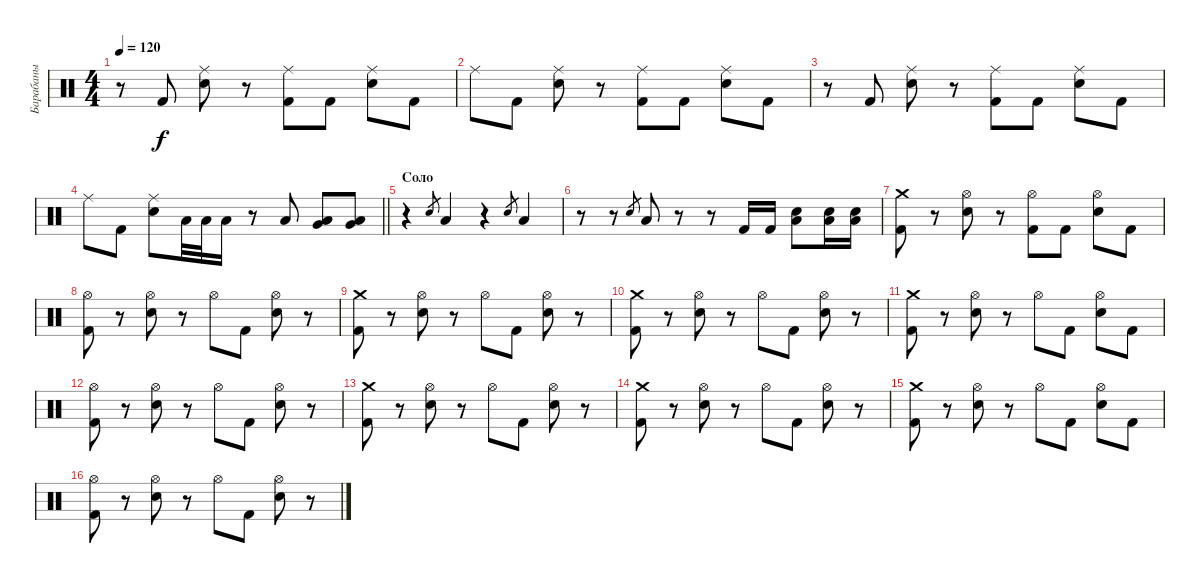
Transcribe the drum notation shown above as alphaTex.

\track ("Барабаны" "Барабаны") {instrument percussion}
\staff {score}
\articulation defaults
\ts (4 4)
\tempo 120
\clef neutral
\ks c
r.8{dy f} "Kick (hit) 2".8 ("Ride (middle)" "Snare (hit) 2").8 r.8 ("Ride (middle)" "Kick (hit) 2").8 "Kick (hit) 2".8 ("Ride (middle)" "Snare (hit) 2").8 "Kick (hit) 2".8 |
"Ride (middle)".8 "Kick (hit) 2".8 ("Ride (middle)" "Snare (hit) 2").8 r.8 ("Ride (middle)" "Kick (hit) 2").8 "Kick (hit) 2".8 ("Ride (middle)" "Snare (hit) 2").8 "Kick (hit) 2".8 |
r.8 "Kick (hit) 2".8 ("Ride (middle)" "Snare (hit) 2").8 r.8 ("Ride (middle)" "Kick (hit) 2").8 "Kick (hit) 2".8 ("Ride (middle)" "Snare (hit) 2").8 "Kick (hit) 2".8 |
\barLineRight lightlight "Ride (middle)".8 "Kick (hit) 2".8
("Ride (middle)" "Snare (hit) 2").8 "Low Tom (hit)".32 "Low Tom (hit)".32 "Low Tom (hit)".16 r.8 "Low Tom (hit)".8 ("Low Tom (hit)" "Very Low Tom (hit)").8 ("Low Tom (hit)" "Very Low Tom (hit)").8 |
\section ("" "Соло")
r.4 "Snare (hit) 2".8{gr} "Low Tom (hit)".4 r.4 "Snare (hit) 2".8{gr} "Low Tom (hit)".4 |
r.8 r.8 "Snare (hit) 2".8{gr} "Low Tom (hit)".8 r.8 r.8 "Kick (hit) 2".16 "Kick (hit) 2".16 ("Snare (hit) 2" "Low Tom (hit)").8 ("Snare (hit) 2" "Low Tom (hit)").16 ("Snare (hit) 2" "Low Tom (hit)").16 |
("Kick (hit) 2" "Crash medium (hit)").8 r.8 ("Hi-Hat (open)" "Snare (hit) 2").8 r.8 ("Hi-Hat (open)" "Kick (hit) 2").8 "Kick (hit) 2".8 ("Hi-Hat (open)" "Snare (hit) 2").8 "Kick (hit) 2".8 |
("Hi-Hat (open)" "Kick (hit) 2").8 r.8 ("Hi-Hat (open)" "Snare (hit) 2").8 r.8 "Hi-Hat (open)".8 "Kick (hit) 2".8 ("Hi-Hat (open)" "Snare (hit) 2").8 r.8 |
("Kick (hit) 2" "Crash medium (hit)").8 r.8 ("Hi-Hat (open)" "Snare (hit) 2").8 r.8 "Hi-Hat (open)".8 "Kick (hit) 2".8 ("Hi-Hat (open)" "Snare (hit) 2").8 r.8 |
("Kick (hit) 2" "Crash medium (hit)").8 r.8 ("Hi-Hat (open)" "Snare (hit) 2").8 r.8 "Hi-Hat (open)".8 "Kick (hit) 2".8 ("Hi-Hat (open)" "Snare (hit) 2").8 r.8 |
("Kick (hit) 2" "Crash medium (hit)").8 r.8 ("Hi-Hat (open)" "Snare (hit) 2").8 r.8 "Hi-Hat (open)".8 "Kick (hit) 2".8 ("Hi-Hat (open)" "Snare (hit) 2").8 "Kick (hit) 2".8 |
("Hi-Hat (open)" "Kick (hit) 2").8 r.8 ("Hi-Hat (open)" "Snare (hit) 2").8 r.8 "Hi-Hat (open)".8 "Kick (hit) 2".8 ("Hi-Hat (open)" "Snare (hit) 2").8 r.8 |
("Kick (hit) 2" "Crash medium (hit)").8 r.8 ("Hi-Hat (open)" "Snare (hit) 2").8 r.8 "Hi-Hat (open)".8 "Kick (hit) 2".8 ("Hi-Hat (open)" "Snare (hit) 2").8 r.8 |
("Kick (hit) 2" "Crash medium (hit)").8 r.8 ("Hi-Hat (open)" "Snare (hit) 2").8 r.8 "Hi-Hat (open)".8 "Kick (hit) 2".8 ("Hi-Hat (open)" "Snare (hit) 2").8 r.8 |
("Kick (hit) 2" "Crash medium (hit)").8 r.8 ("Hi-Hat (open)" "Snare (hit) 2").8 r.8 "Hi-Hat (open)".8 "Kick (hit) 2".8 ("Hi-Hat (open)" "Snare (hit) 2").8 "Kick (hit) 2".8 |
("Hi-Hat (open)" "Kick (hit) 2").8 r.8 ("Hi-Hat (open)" "Snare (hit) 2").8 r.8 "Hi-Hat (open)".8 "Kick (hit) 2".8 ("Hi-Hat (open)" "Snare (hit) 2").8 r.8
